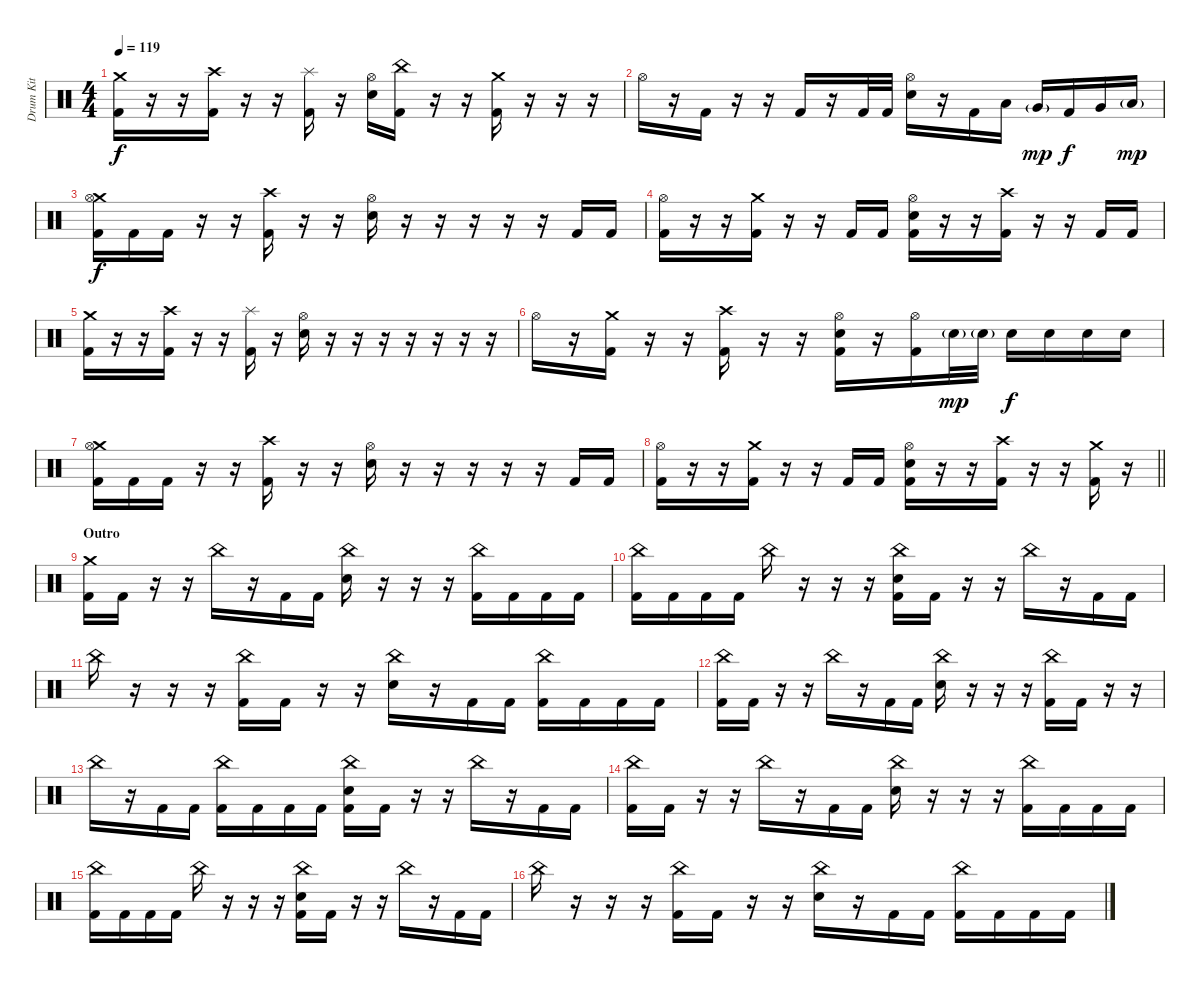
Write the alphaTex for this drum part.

\track ("Drum Kit" "Drum Kit") {instrument percussion}
\staff {score}
\articulation defaults
\ts (4 4)
\tempo 119
\clef neutral
\ks c
("Crash medium (hit)" "Kick (hit) 2").16{dy f} r.16 r.16 ("Crash high (hit)" "Kick (hit) 2").16 r.16 r.16 ("Splash (hit)" "Kick (hit) 2").16 r.16 ("Hi-Hat (open)" "Electric Snare (hit)").16 ("China (hit)" "Kick (hit) 2").16 r.16 r.16 ("Crash medium (hit)" "Kick (hit) 2").16 r.16 r.16 r.16 |
"Hi-Hat (open)".16 r.16 "Kick (hit) 2".16 r.16 r.16 "Kick (hit) 2".16 r.16 "Kick (hit) 2".32 "Kick (hit) 2".32 ("Hi-Hat (open)" "Electric Snare (hit)").16 r.16 "Kick (hit) 2".16 "Low Tom (hit)".16 "Very Low Tom (hit)"{g}.16{dy mp} "Kick (hit) 2".16{dy f} "Very Low Tom (hit)".16 "Low Floor Tom (hit)"{g}.16{dy mp} |
("Crash medium (hit)" "Hi-Hat (open)" "Kick (hit) 2").16{dy f} "Kick (hit) 2".16 "Kick (hit) 2".16 r.16 r.16 ("Crash high (hit)" "Kick (hit) 2").16 r.16 r.16 ("Hi-Hat (open)" "Electric Snare (hit)").16 r.16 r.16 r.16 r.16 r.16 "Kick (hit) 2".16 "Kick (hit) 2".16 |
("Hi-Hat (open)" "Kick (hit) 2").16 r.16 r.16 ("Crash medium (hit)" "Kick (hit) 2").16 r.16 r.16 "Kick (hit) 2".16 "Kick (hit) 2".16 ("Hi-Hat (open)" "Electric Snare (hit)" "Kick (hit) 2").16 r.16 r.16 ("Crash high (hit)" "Kick (hit) 2").16 r.16 r.16 "Kick (hit) 2".16 "Kick (hit) 2".16 |
("Crash medium (hit)" "Kick (hit) 2").16 r.16 r.16 ("Crash high (hit)" "Kick (hit) 2").16 r.16 r.16 ("Splash (hit)" "Kick (hit) 2").16 r.16 ("Hi-Hat (open)" "Electric Snare (hit)").16 r.16 r.16 r.16 r.16 r.16 r.16 r.16 |
"Hi-Hat (open)".16 r.16 ("Crash medium (hit)" "Kick (hit) 2").16 r.16 r.16 ("Crash high (hit)" "Kick (hit) 2").16 r.16 r.16 ("Hi-Hat (open)" "Electric Snare (hit)" "Kick (hit) 2").16 r.16 ("Hi-Hat (open)" "Kick (hit) 2").16 "Electric Snare (hit)"{g}.32{dy mp} "Electric Snare (hit)"{g}.32 "Electric Snare (hit)".16{dy f} "Electric Snare (hit)".16 "Electric Snare (hit)".16 "Electric Snare (hit)".16 |
("Crash medium (hit)" "Hi-Hat (open)" "Kick (hit) 2").16 "Kick (hit) 2".16 "Kick (hit) 2".16 r.16 r.16 ("Crash high (hit)" "Kick (hit) 2").16 r.16 r.16 ("Hi-Hat (open)" "Electric Snare (hit)").16 r.16 r.16 r.16 r.16 r.16 "Kick (hit) 2".16 "Kick (hit) 2".16 |
\barLineRight lightlight
("Hi-Hat (open)" "Kick (hit) 2").16 r.16 r.16 ("Crash medium (hit)" "Kick (hit) 2").16 r.16 r.16 "Kick (hit) 2".16 "Kick (hit) 2".16 ("Hi-Hat (open)" "Electric Snare (hit)" "Kick (hit) 2").16 r.16 r.16 ("Crash high (hit)" "Kick (hit) 2").16 r.16 r.16 ("Crash medium (hit)" "Kick (hit) 2").16 r.16 |
\section ("" "Outro")
("Crash medium (hit)" "Kick (hit) 2").16 "Kick (hit) 2".16 r.16 r.16 "China (hit)".16 r.16 "Kick (hit) 2".16 "Kick (hit) 2".16 ("China (hit)" "Electric Snare (hit)").16 r.16 r.16 r.16 ("China (hit)" "Kick (hit) 2").16 "Kick (hit) 2".16 "Kick (hit) 2".16 "Kick (hit) 2".16 |
("China (hit)" "Kick (hit) 2").16 "Kick (hit) 2".16 "Kick (hit) 2".16 "Kick (hit) 2".16 "China (hit)".16 r.16 r.16 r.16 ("China (hit)" "Electric Snare (hit)" "Kick (hit) 2").16 "Kick (hit) 2".16 r.16 r.16 "China (hit)".16 r.16 "Kick (hit) 2".16 "Kick (hit) 2".16 |
"China (hit)".16 r.16 r.16 r.16 ("China (hit)" "Kick (hit) 2").16 "Kick (hit) 2".16 r.16 r.16 ("China (hit)" "Electric Snare (hit)").16 r.16 "Kick (hit) 2".16 "Kick (hit) 2".16 ("China (hit)" "Kick (hit) 2").16 "Kick (hit) 2".16 "Kick (hit) 2".16 "Kick (hit) 2".16 |
("China (hit)" "Kick (hit) 2").16 "Kick (hit) 2".16 r.16 r.16 "China (hit)".16 r.16 "Kick (hit) 2".16 "Kick (hit) 2".16 ("China (hit)" "Electric Snare (hit)").16 r.16 r.16 r.16 ("China (hit)" "Kick (hit) 2").16 "Kick (hit) 2".16 r.16 r.16 |
"China (hit)".16 r.16 "Kick (hit) 2".16 "Kick (hit) 2".16 ("China (hit)" "Kick (hit) 2").16 "Kick (hit) 2".16 "Kick (hit) 2".16 "Kick (hit) 2".16 ("China (hit)" "Electric Snare (hit)" "Kick (hit) 2").16 "Kick (hit) 2".16 r.16 r.16 "China (hit)".16 r.16 "Kick (hit) 2".16 "Kick (hit) 2".16 |
("China (hit)" "Kick (hit) 2").16 "Kick (hit) 2".16 r.16 r.16 "China (hit)".16 r.16 "Kick (hit) 2".16 "Kick (hit) 2".16 ("China (hit)" "Electric Snare (hit)").16 r.16 r.16 r.16 ("China (hit)" "Kick (hit) 2").16 "Kick (hit) 2".16 "Kick (hit) 2".16 "Kick (hit) 2".16 |
("China (hit)" "Kick (hit) 2").16 "Kick (hit) 2".16 "Kick (hit) 2".16 "Kick (hit) 2".16 "China (hit)".16 r.16 r.16 r.16 ("China (hit)" "Electric Snare (hit)" "Kick (hit) 2").16 "Kick (hit) 2".16 r.16 r.16 "China (hit)".16 r.16 "Kick (hit) 2".16 "Kick (hit) 2".16 |
"China (hit)".16 r.16 r.16 r.16 ("China (hit)" "Kick (hit) 2").16 "Kick (hit) 2".16 r.16 r.16 ("China (hit)" "Electric Snare (hit)").16 r.16 "Kick (hit) 2".16 "Kick (hit) 2".16 ("China (hit)" "Kick (hit) 2").16 "Kick (hit) 2".16 "Kick (hit) 2".16 "Kick (hit) 2".16
